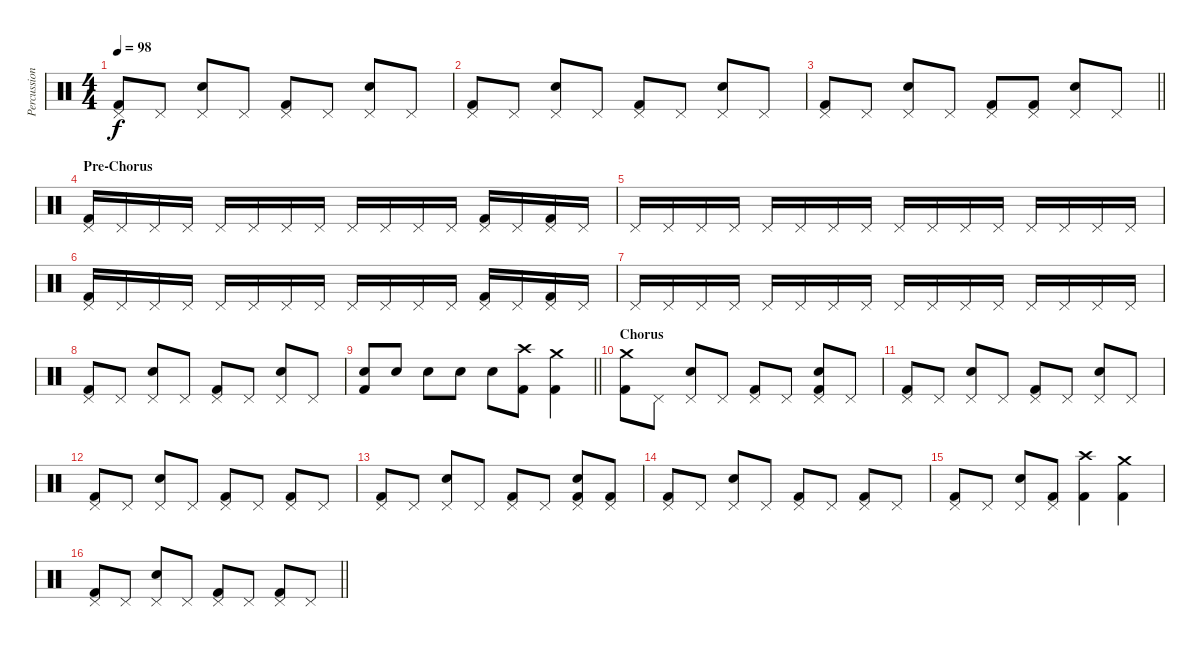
\track ("Percussion" "Percussion") {instrument percussion}
\staff {score}
\articulation defaults
\ts (4 4)
\tempo 98
\clef neutral
\ks c
("Pedal Hi-Hat (hit)" "Kick (hit) 2").8{dy f} "Pedal Hi-Hat (hit)".8 ("Pedal Hi-Hat (hit)" "Snare (hit) 2").8 "Pedal Hi-Hat (hit)".8 ("Pedal Hi-Hat (hit)" "Kick (hit) 2").8 "Pedal Hi-Hat (hit)".8 ("Pedal Hi-Hat (hit)" "Snare (hit) 2").8 "Pedal Hi-Hat (hit)".8 |
("Pedal Hi-Hat (hit)" "Kick (hit) 2").8 "Pedal Hi-Hat (hit)".8 ("Pedal Hi-Hat (hit)" "Snare (hit) 2").8 "Pedal Hi-Hat (hit)".8 ("Pedal Hi-Hat (hit)" "Kick (hit) 2").8 "Pedal Hi-Hat (hit)".8 ("Pedal Hi-Hat (hit)" "Snare (hit) 2").8 "Pedal Hi-Hat (hit)".8 |
\barLineRight lightlight
("Pedal Hi-Hat (hit)" "Kick (hit) 2").8 "Pedal Hi-Hat (hit)".8 ("Pedal Hi-Hat (hit)" "Snare (hit) 2").8 "Pedal Hi-Hat (hit)".8 ("Pedal Hi-Hat (hit)" "Kick (hit) 2").8 ("Pedal Hi-Hat (hit)" "Kick (hit) 2").8 ("Pedal Hi-Hat (hit)" "Snare (hit) 2").8 "Pedal Hi-Hat (hit)".8 |
\section ("" "Pre-Chorus")
("Pedal Hi-Hat (hit)" "Kick (hit) 2").16 "Pedal Hi-Hat (hit)".16 "Pedal Hi-Hat (hit)".16 "Pedal Hi-Hat (hit)".16 "Pedal Hi-Hat (hit)".16 "Pedal Hi-Hat (hit)".16 "Pedal Hi-Hat (hit)".16 "Pedal Hi-Hat (hit)".16 "Pedal Hi-Hat (hit)".16 "Pedal Hi-Hat (hit)".16 "Pedal Hi-Hat (hit)".16 "Pedal Hi-Hat (hit)".16 ("Pedal Hi-Hat (hit)" "Kick (hit) 2").16 "Pedal Hi-Hat (hit)".16 ("Pedal Hi-Hat (hit)" "Kick (hit) 2").16 "Pedal Hi-Hat (hit)".16 |
"Pedal Hi-Hat (hit)".16 "Pedal Hi-Hat (hit)".16 "Pedal Hi-Hat (hit)".16 "Pedal Hi-Hat (hit)".16 "Pedal Hi-Hat (hit)".16 "Pedal Hi-Hat (hit)".16 "Pedal Hi-Hat (hit)".16 "Pedal Hi-Hat (hit)".16 "Pedal Hi-Hat (hit)".16 "Pedal Hi-Hat (hit)".16 "Pedal Hi-Hat (hit)".16 "Pedal Hi-Hat (hit)".16 "Pedal Hi-Hat (hit)".16 "Pedal Hi-Hat (hit)".16 "Pedal Hi-Hat (hit)".16 "Pedal Hi-Hat (hit)".16 |
("Pedal Hi-Hat (hit)" "Kick (hit) 2").16 "Pedal Hi-Hat (hit)".16 "Pedal Hi-Hat (hit)".16 "Pedal Hi-Hat (hit)".16 "Pedal Hi-Hat (hit)".16 "Pedal Hi-Hat (hit)".16 "Pedal Hi-Hat (hit)".16 "Pedal Hi-Hat (hit)".16 "Pedal Hi-Hat (hit)".16 "Pedal Hi-Hat (hit)".16 "Pedal Hi-Hat (hit)".16 "Pedal Hi-Hat (hit)".16 ("Pedal Hi-Hat (hit)" "Kick (hit) 2").16 "Pedal Hi-Hat (hit)".16 ("Pedal Hi-Hat (hit)" "Kick (hit) 2").16 "Pedal Hi-Hat (hit)".16 |
"Pedal Hi-Hat (hit)".16 "Pedal Hi-Hat (hit)".16 "Pedal Hi-Hat (hit)".16 "Pedal Hi-Hat (hit)".16 "Pedal Hi-Hat (hit)".16 "Pedal Hi-Hat (hit)".16 "Pedal Hi-Hat (hit)".16 "Pedal Hi-Hat (hit)".16 "Pedal Hi-Hat (hit)".16 "Pedal Hi-Hat (hit)".16 "Pedal Hi-Hat (hit)".16 "Pedal Hi-Hat (hit)".16 "Pedal Hi-Hat (hit)".16 "Pedal Hi-Hat (hit)".16 "Pedal Hi-Hat (hit)".16 "Pedal Hi-Hat (hit)".16 |
("Pedal Hi-Hat (hit)" "Kick (hit) 2").8 "Pedal Hi-Hat (hit)".8 ("Pedal Hi-Hat (hit)" "Snare (hit) 2").8 "Pedal Hi-Hat (hit)".8 ("Pedal Hi-Hat (hit)" "Kick (hit) 2").8 "Pedal Hi-Hat (hit)".8 ("Pedal Hi-Hat (hit)" "Snare (hit) 2").8 "Pedal Hi-Hat (hit)".8 |
\barLineRight lightlight
("Snare (hit) 2" "Kick (hit) 2").8 "Snare (hit) 2".8 "Snare (hit) 2".8 "Snare (hit) 2".8 "Snare (hit) 2".8 ("Crash high (hit)" "Kick (hit) 2").8 ("Crash medium (hit)" "Kick (hit) 2").4 |
\section ("" "Chorus")
("Crash medium (hit)" "Kick (hit) 2").8 "Pedal Hi-Hat (hit)".8 ("Pedal Hi-Hat (hit)" "Snare (hit) 2").8 "Pedal Hi-Hat (hit)".8 ("Pedal Hi-Hat (hit)" "Kick (hit) 2").8 "Pedal Hi-Hat (hit)".8 ("Pedal Hi-Hat (hit)" "Snare (hit) 2" "Kick (hit) 2").8 "Pedal Hi-Hat (hit)".8 |
("Pedal Hi-Hat (hit)" "Kick (hit) 2").8 "Pedal Hi-Hat (hit)".8 ("Pedal Hi-Hat (hit)" "Snare (hit) 2").8 "Pedal Hi-Hat (hit)".8 ("Pedal Hi-Hat (hit)" "Kick (hit) 2").8 "Pedal Hi-Hat (hit)".8 ("Pedal Hi-Hat (hit)" "Snare (hit) 2").8 "Pedal Hi-Hat (hit)".8 |
("Pedal Hi-Hat (hit)" "Kick (hit) 2").8 "Pedal Hi-Hat (hit)".8 ("Pedal Hi-Hat (hit)" "Snare (hit) 2").8 "Pedal Hi-Hat (hit)".8 ("Pedal Hi-Hat (hit)" "Kick (hit) 2").8 "Pedal Hi-Hat (hit)".8 ("Pedal Hi-Hat (hit)" "Kick (hit) 2").8 "Pedal Hi-Hat (hit)".8 |
("Pedal Hi-Hat (hit)" "Kick (hit) 2").8 "Pedal Hi-Hat (hit)".8 ("Pedal Hi-Hat (hit)" "Snare (hit) 2").8 "Pedal Hi-Hat (hit)".8 ("Pedal Hi-Hat (hit)" "Kick (hit) 2").8 "Pedal Hi-Hat (hit)".8 ("Pedal Hi-Hat (hit)" "Snare (hit) 2" "Kick (hit) 2").8 ("Pedal Hi-Hat (hit)" "Kick (hit) 2").8 |
("Pedal Hi-Hat (hit)" "Kick (hit) 2").8 "Pedal Hi-Hat (hit)".8 ("Pedal Hi-Hat (hit)" "Snare (hit) 2").8 "Pedal Hi-Hat (hit)".8 ("Pedal Hi-Hat (hit)" "Kick (hit) 2").8 "Pedal Hi-Hat (hit)".8 ("Pedal Hi-Hat (hit)" "Kick (hit) 2").8 "Pedal Hi-Hat (hit)".8 |
("Pedal Hi-Hat (hit)" "Kick (hit) 2").8 "Pedal Hi-Hat (hit)".8 ("Pedal Hi-Hat (hit)" "Snare (hit) 2").8 ("Pedal Hi-Hat (hit)" "Kick (hit) 2").8 ("Crash high (hit)" "Kick (hit) 2").4 ("Crash medium (hit)" "Kick (hit) 2").4 |
\barLineRight lightlight
("Pedal Hi-Hat (hit)" "Kick (hit) 2").8 "Pedal Hi-Hat (hit)".8 ("Pedal Hi-Hat (hit)" "Snare (hit) 2").8 "Pedal Hi-Hat (hit)".8 ("Pedal Hi-Hat (hit)" "Kick (hit) 2").8 "Pedal Hi-Hat (hit)".8 ("Pedal Hi-Hat (hit)" "Kick (hit) 2").8 "Pedal Hi-Hat (hit)".8
